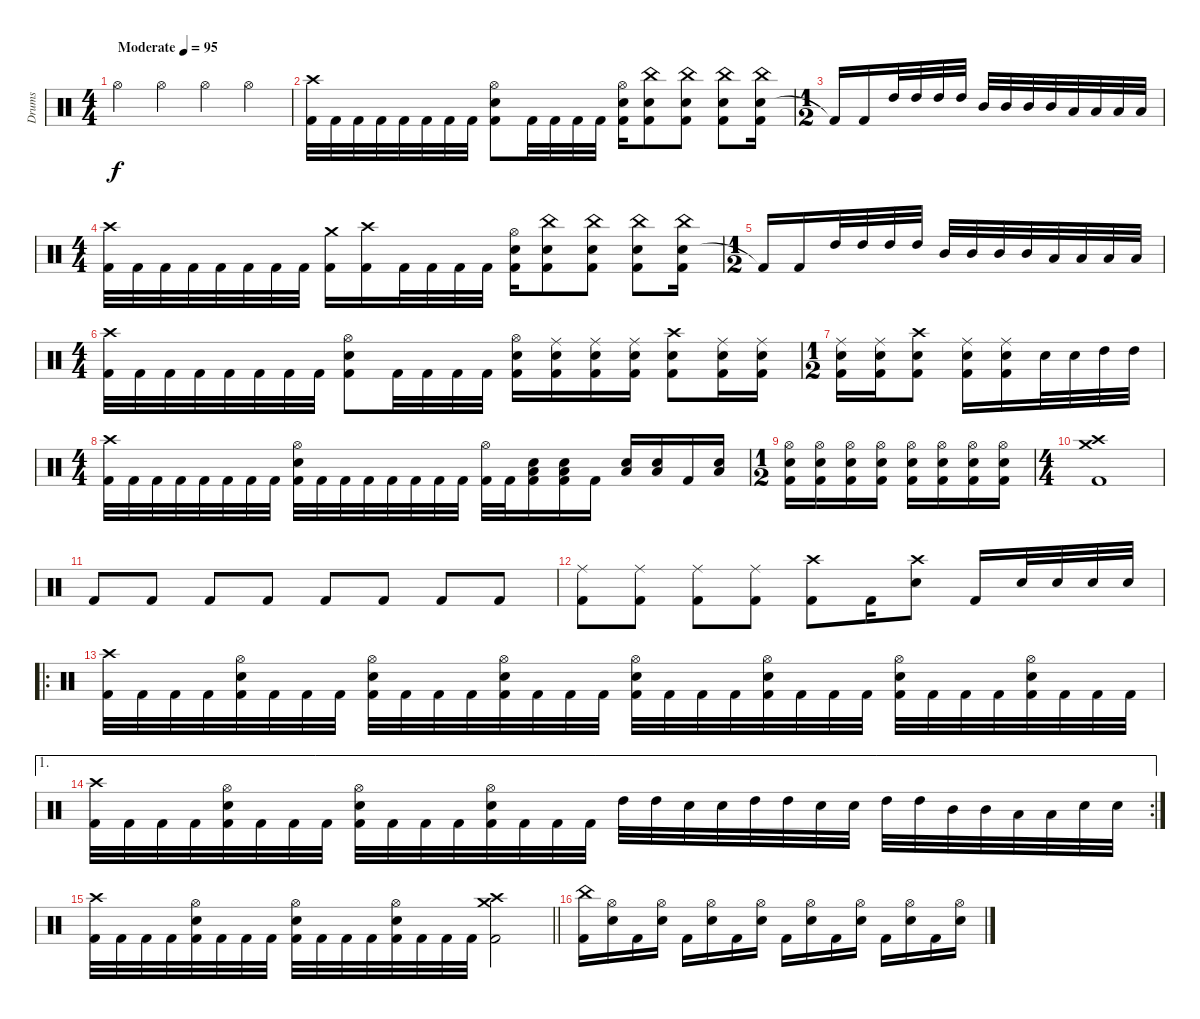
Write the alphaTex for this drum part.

\track ("Drums" "Drums") {instrument percussion}
\staff {score}
\articulation defaults
\ts (4 4)
\tempo (95 "Moderate")
\clef neutral
\ks c "Hi-Hat (open)".4{dy f} "Hi-Hat (open)".4 "Hi-Hat (open)".4 "Hi-Hat (open)".4
|
("Crash high (hit)" "Kick (hit) 2").32 "Kick (hit) 2".32 "Kick (hit) 2".32 "Kick (hit) 2".32 "Kick (hit) 2".32 "Kick (hit) 2".32 "Kick (hit) 2".32 "Kick (hit) 2".32 ("Hi-Hat (open)" "Electric Snare (hit)" "Kick (hit) 2").8 "Kick (hit) 2".32 "Kick (hit) 2".32 "Kick (hit) 2".32 "Kick (hit) 2".32 ("Hi-Hat (open)" "Electric Snare (hit)" "Kick (hit) 2").16 ("China (hit)" "Electric Snare (hit)" "Kick (hit) 2").8 ("China (hit)" "Electric Snare (hit)" "Kick (hit) 2").8 ("China (hit)" "Electric Snare (hit)" "Kick (hit) 2").8 ("Electric Snare (hit)" "China (hit)" "Kick (hit) 2").16 |
\ts (1 2)
"Kick (hit) 2"{t}.16 "Kick (hit) 2".16 "High Tom (hit)".32 "High Tom (hit)".32 "High Tom (hit)".32 "High Tom (hit)".32 "Mid Tom (hit)".32 "Mid Tom (hit)".32 "Mid Tom (hit)".32 "Mid Tom (hit)".32 "Low Floor Tom (hit)".32 "Low Floor Tom (hit)".32 "Low Floor Tom (hit)".32 "Low Floor Tom (hit)".32 |
\ts (4 4)
("Crash high (hit)" "Kick (hit) 2").32 "Kick (hit) 2".32 "Kick (hit) 2".32 "Kick (hit) 2".32 "Kick (hit) 2".32 "Kick (hit) 2".32 "Kick (hit) 2".32 "Kick (hit) 2".32 ("Crash medium (hit)" "Kick (hit) 2").16 ("Crash high (hit)" "Kick (hit) 2").16 "Kick (hit) 2".32 "Kick (hit) 2".32 "Kick (hit) 2".32 "Kick (hit) 2".32 ("Hi-Hat (open)" "Electric Snare (hit)" "Kick (hit) 2").16 ("China (hit)" "Electric Snare (hit)" "Kick (hit) 2").8 ("China (hit)" "Electric Snare (hit)" "Kick (hit) 2").8 ("China (hit)" "Electric Snare (hit)" "Kick (hit) 2").8 ("Electric Snare (hit)" "China (hit)" "Kick (hit) 2").16 |
\ts (1 2)
"Kick (hit) 2"{t}.16 "Kick (hit) 2".16 "High Tom (hit)".32 "High Tom (hit)".32 "High Tom (hit)".32 "High Tom (hit)".32 "Mid Tom (hit)".32 "Mid Tom (hit)".32 "Mid Tom (hit)".32 "Mid Tom (hit)".32 "Low Floor Tom (hit)".32 "Low Floor Tom (hit)".32 "Low Floor Tom (hit)".32 "Low Floor Tom (hit)".32 |
\ts (4 4)
("Crash high (hit)" "Kick (hit) 2").32 "Kick (hit) 2".32 "Kick (hit) 2".32 "Kick (hit) 2".32 "Kick (hit) 2".32 "Kick (hit) 2".32 "Kick (hit) 2".32 "Kick (hit) 2".32 ("Hi-Hat (open)" "Electric Snare (hit)" "Kick (hit) 2").8 "Kick (hit) 2".32 "Kick (hit) 2".32 "Kick (hit) 2".32 "Kick (hit) 2".32 ("Hi-Hat (open)" "Electric Snare (hit)" "Kick (hit) 2").16 ("Ride (middle)" "Electric Snare (hit)" "Kick (hit) 2").16 ("Ride (middle)" "Electric Snare (hit)" "Kick (hit) 2").16 ("Ride (middle)" "Electric Snare (hit)" "Kick (hit) 2").16 ("Crash high (hit)" "Electric Snare (hit)" "Kick (hit) 2").8 ("Ride (middle)" "Electric Snare (hit)" "Kick (hit) 2").16 ("Ride (middle)" "Electric Snare (hit)" "Kick (hit) 2").16 |
\ts (1 2)
("Ride (middle)" "Electric Snare (hit)" "Kick (hit) 2").16 ("Ride (middle)" "Electric Snare (hit)" "Kick (hit) 2").16 ("Crash high (hit)" "Electric Snare (hit)" "Kick (hit) 2").8 ("Ride (middle)" "Electric Snare (hit)" "Kick (hit) 2").16 ("Ride (middle)" "Electric Snare (hit)" "Kick (hit) 2").16 "Electric Snare (hit)".32 "Electric Snare (hit)".32 "High Tom (hit)".32 "High Tom (hit)".32 |
\ts (4 4)
("Crash high (hit)" "Kick (hit) 2").32 "Kick (hit) 2".32 "Kick (hit) 2".32 "Kick (hit) 2".32 "Kick (hit) 2".32 "Kick (hit) 2".32 "Kick (hit) 2".32 "Kick (hit) 2".32 ("Hi-Hat (open)" "Electric Snare (hit)" "Kick (hit) 2").32 "Kick (hit) 2".32 "Kick (hit) 2".32 "Kick (hit) 2".32 "Kick (hit) 2".32 "Kick (hit) 2".32 "Kick (hit) 2".32 "Kick (hit) 2".32 ("Hi-Hat (open)" "Kick (hit) 2").32 "Kick (hit) 2".32 ("Low Floor Tom (hit)" "Electric Snare (hit)" "Kick (hit) 2").16 ("Low Floor Tom (hit)" "Electric Snare (hit)" "Kick (hit) 2").16 "Kick (hit) 2".16 ("Low Floor Tom (hit)" "Electric Snare (hit)").16 ("Low Floor Tom (hit)" "Electric Snare (hit)").16 "Kick (hit) 2".16 ("Low Floor Tom (hit)" "Electric Snare (hit)").16 |
\ts (1 2)
("Hi-Hat (open)" "Electric Snare (hit)" "Kick (hit) 2").16 ("Hi-Hat (open)" "Electric Snare (hit)" "Kick (hit) 2").16 ("Hi-Hat (open)" "Electric Snare (hit)" "Kick (hit) 2").16 ("Hi-Hat (open)" "Electric Snare (hit)" "Kick (hit) 2").16 ("Hi-Hat (open)" "Electric Snare (hit)" "Kick (hit) 2").16 ("Hi-Hat (open)" "Electric Snare (hit)" "Kick (hit) 2").16 ("Hi-Hat (open)" "Electric Snare (hit)" "Kick (hit) 2").16 ("Hi-Hat (open)" "Electric Snare (hit)" "Kick (hit) 2").16 |
\ts (4 4)
("Crash medium (hit)" "Crash high (hit)" "Kick (hit) 2").1 |
"Kick (hit) 2".8 "Kick (hit) 2".8 "Kick (hit) 2".8 "Kick (hit) 2".8 "Kick (hit) 2".8 "Kick (hit) 2".8 "Kick (hit) 2".8 "Kick (hit) 2".8 |
("Ride (middle)" "Kick (hit) 2").8 ("Ride (middle)" "Kick (hit) 2").8 ("Ride (middle)" "Kick (hit) 2").8 ("Ride (middle)" "Kick (hit) 2").8 ("Crash high (hit)" "Kick (hit) 2").8 "Kick (hit) 2".16 ("Crash high (hit)" "Electric Snare (hit)").8 "Kick (hit) 2".16 "Electric Snare (hit)".32 "Electric Snare (hit)".32 "Electric Snare (hit)".32 "Electric Snare (hit)".32 |
\ro
("Crash high (hit)" "Kick (hit) 2").32 "Kick (hit) 2".32 "Kick (hit) 2".32 "Kick (hit) 2".32 ("Hi-Hat (open)" "Electric Snare (hit)" "Kick (hit) 2").32 "Kick (hit) 2".32 "Kick (hit) 2".32 "Kick (hit) 2".32 ("Electric Snare (hit)" "Hi-Hat (open)" "Kick (hit) 2").32 "Kick (hit) 2".32 "Kick (hit) 2".32 "Kick (hit) 2".32 ("Hi-Hat (open)" "Electric Snare (hit)" "Kick (hit) 2").32 "Kick (hit) 2".32 "Kick (hit) 2".32 "Kick (hit) 2".32 ("Hi-Hat (open)" "Electric Snare (hit)" "Kick (hit) 2").32 "Kick (hit) 2".32 "Kick (hit) 2".32 "Kick (hit) 2".32 ("Electric Snare (hit)" "Hi-Hat (open)" "Kick (hit) 2").32 "Kick (hit) 2".32 "Kick (hit) 2".32 "Kick (hit) 2".32 ("Electric Snare (hit)" "Hi-Hat (open)" "Kick (hit) 2").32 "Kick (hit) 2".32 "Kick (hit) 2".32 "Kick (hit) 2".32 ("Electric Snare (hit)" "Hi-Hat (open)" "Kick (hit) 2").32 "Kick (hit) 2".32 "Kick (hit) 2".32 "Kick (hit) 2".32 |
\ae 1
\rc 2
("Crash high (hit)" "Kick (hit) 2").32 "Kick (hit) 2".32 "Kick (hit) 2".32 "Kick (hit) 2".32 ("Hi-Hat (open)" "Electric Snare (hit)" "Kick (hit) 2").32 "Kick (hit) 2".32 "Kick (hit) 2".32 "Kick (hit) 2".32 ("Electric Snare (hit)" "Hi-Hat (open)" "Kick (hit) 2").32 "Kick (hit) 2".32 "Kick (hit) 2".32 "Kick (hit) 2".32 ("Hi-Hat (open)" "Electric Snare (hit)" "Kick (hit) 2").32 "Kick (hit) 2".32 "Kick (hit) 2".32 "Kick (hit) 2".32 "High Tom (hit)".32 "High Tom (hit)".32 "Electric Snare (hit)".32 "Electric Snare (hit)".32 "High Tom (hit)".32 "High Tom (hit)".32 "Electric Snare (hit)".32 "Electric Snare (hit)".32 "High Tom (hit)".32 "High Tom (hit)".32 "Mid Tom (hit)".32 "Mid Tom (hit)".32 "Low Floor Tom (hit)".32 "Low Floor Tom (hit)".32 "Electric Snare (hit)".32 "Electric Snare (hit)".32 |
\barLineRight lightlight
("Crash high (hit)" "Kick (hit) 2").32 "Kick (hit) 2".32 "Kick (hit) 2".32 "Kick (hit) 2".32 ("Hi-Hat (open)" "Electric Snare (hit)" "Kick (hit) 2").32 "Kick (hit) 2".32 "Kick (hit) 2".32 "Kick (hit) 2".32 ("Electric Snare (hit)" "Hi-Hat (open)" "Kick (hit) 2").32 "Kick (hit) 2".32 "Kick (hit) 2".32 "Kick (hit) 2".32 ("Hi-Hat (open)" "Electric Snare (hit)" "Kick (hit) 2").32 "Kick (hit) 2".32 "Kick (hit) 2".32 "Kick (hit) 2".32 ("Crash medium (hit)" "Crash high (hit)" "Kick (hit) 2").2 |
("China (hit)" "Kick (hit) 2").16 ("Electric Snare (hit)" "Hi-Hat (open)").16 "Kick (hit) 2".16 ("Electric Snare (hit)" "Hi-Hat (open)").16 "Kick (hit) 2".16 ("Electric Snare (hit)" "Hi-Hat (open)").16 "Kick (hit) 2".16 ("Electric Snare (hit)" "Hi-Hat (open)").16 "Kick (hit) 2".16 ("Electric Snare (hit)" "Hi-Hat (open)").16 "Kick (hit) 2".16 ("Electric Snare (hit)" "Hi-Hat (open)").16 "Kick (hit) 2".16 ("Electric Snare (hit)" "Hi-Hat (open)").16 "Kick (hit) 2".16 ("Electric Snare (hit)" "Hi-Hat (open)").16
